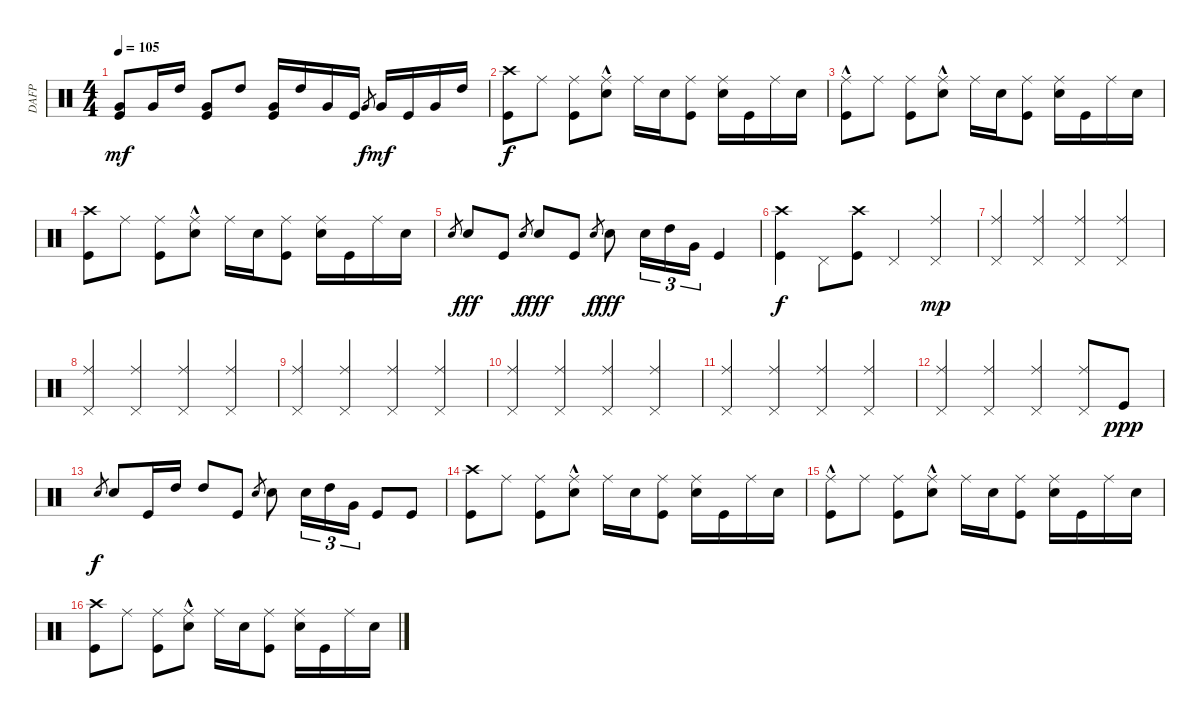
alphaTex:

\track ("DAFP" "DAFP") {instrument percussion}
\staff {score}
\articulation defaults
\ts (4 4)
\tempo 105
\clef neutral
\ks c
("Very Low Tom (hit)" "Kick (hit)").8{dy mf} "Very Low Tom (hit)".16 "High Tom (hit)".16 ("Very Low Tom (hit)" "Kick (hit)").8 "High Tom (hit)".8 ("Very Low Tom (hit)" "Kick (hit)").16 "High Tom (hit)".16 "Very Low Tom (hit)".16 "Kick (hit)".16 "Very Low Tom (hit)".8{gr dy f} "Very Low Tom (hit)".16{dy mf} "Kick (hit)".16 "Very Low Tom (hit)".16 "High Tom (hit)".16 |
("Crash high (hit)" "Kick (hit)").8{dy f} "Ride (middle)".8 ("Kick (hit)" "Ride (middle)").8 ("Snare (hit) 2" "Ride (middle)"{hac}).8 "Ride (middle)".16 "Snare (hit) 2".16 ("Kick (hit)" "Ride (middle)").8 ("Snare (hit) 2" "Ride (middle)").16 "Kick (hit)".16 "Ride (middle)".16 "Snare (hit) 2".16 |
("Ride (middle)"{hac} "Kick (hit)").8 "Ride (middle)".8 ("Kick (hit)" "Ride (middle)").8 ("Snare (hit) 2" "Ride (middle)"{hac}).8 "Ride (middle)".16 "Snare (hit) 2".16 ("Kick (hit)" "Ride (middle)").8 ("Snare (hit) 2" "Ride (middle)").16 "Kick (hit)".16 "Ride (middle)".16 "Snare (hit) 2".16 |
("Crash high (hit)" "Kick (hit)").8 "Ride (middle)".8 ("Kick (hit)" "Ride (middle)").8 ("Snare (hit) 2" "Ride (middle)"{hac}).8 "Ride (middle)".16 "Snare (hit) 2".16 ("Kick (hit)" "Ride (middle)").8 ("Snare (hit) 2" "Ride (middle)").16 "Kick (hit)".16 "Ride (middle)".16 "Snare (hit) 2".16 |
"Snare (hit) 2".8{gr} "Snare (hit) 2".8{dy fff} "Kick (hit)".8 "Snare (hit) 2".8{gr dy f} "Snare (hit) 2".8{dy fff} "Kick (hit)".8 "Snare (hit) 2".8{gr dy f} "Snare (hit) 2".8{dy fff} "Snare (hit) 2".16{tu (3 2)} "High Tom (hit)".16{tu (3 2)} "Very Low Tom (hit)".16{tu (3 2)} "Kick (hit)".4 |
("Crash high (hit)" "Kick (hit)").4{dy f} "Pedal Hi-Hat (hit)".8 ("Kick (hit)" "Crash high (hit)").8 "Pedal Hi-Hat (hit)".4 ("Pedal Hi-Hat (hit)" "Ride (middle)").4{dy mp} |
("Pedal Hi-Hat (hit)" "Ride (middle)").4 ("Pedal Hi-Hat (hit)" "Ride (middle)").4 ("Pedal Hi-Hat (hit)" "Ride (middle)").4 ("Pedal Hi-Hat (hit)" "Ride (middle)").4 |
("Pedal Hi-Hat (hit)" "Ride (middle)").4 ("Pedal Hi-Hat (hit)" "Ride (middle)").4 ("Pedal Hi-Hat (hit)" "Ride (middle)").4 ("Pedal Hi-Hat (hit)" "Ride (middle)").4 |
("Pedal Hi-Hat (hit)" "Ride (middle)").4 ("Pedal Hi-Hat (hit)" "Ride (middle)").4 ("Pedal Hi-Hat (hit)" "Ride (middle)").4 ("Pedal Hi-Hat (hit)" "Ride (middle)").4 |
("Pedal Hi-Hat (hit)" "Ride (middle)").4 ("Pedal Hi-Hat (hit)" "Ride (middle)").4 ("Pedal Hi-Hat (hit)" "Ride (middle)").4 ("Pedal Hi-Hat (hit)" "Ride (middle)").4 |
("Pedal Hi-Hat (hit)" "Ride (middle)").4 ("Pedal Hi-Hat (hit)" "Ride (middle)").4 ("Pedal Hi-Hat (hit)" "Ride (middle)").4 ("Pedal Hi-Hat (hit)" "Ride (middle)").4 |
("Pedal Hi-Hat (hit)" "Ride (middle)").4 ("Pedal Hi-Hat (hit)" "Ride (middle)").4 ("Pedal Hi-Hat (hit)" "Ride (middle)").4 ("Pedal Hi-Hat (hit)" "Ride (middle)").8 "Kick (hit)".8{dy ppp} |
"Snare (hit) 2".8{gr dy f} "Snare (hit) 2".8 "Kick (hit)".16 "High Tom (hit)".16 "High Tom (hit)".8 "Kick (hit)".8 "Snare (hit) 2".8{gr} "Snare (hit) 2".8 "Snare (hit) 2".16{tu (3 2)} "High Tom (hit)".16{tu (3 2)} "Very Low Tom (hit)".16{tu (3 2)} "Kick (hit)".8 "Kick (hit)".8 |
("Crash high (hit)" "Kick (hit)").8 "Ride (middle)".8 ("Kick (hit)" "Ride (middle)").8 ("Snare (hit) 2" "Ride (middle)"{hac}).8 "Ride (middle)".16 "Snare (hit) 2".16 ("Kick (hit)" "Ride (middle)").8 ("Snare (hit) 2" "Ride (middle)").16 "Kick (hit)".16 "Ride (middle)".16 "Snare (hit) 2".16 |
("Ride (middle)"{hac} "Kick (hit)").8 "Ride (middle)".8 ("Kick (hit)" "Ride (middle)").8 ("Snare (hit) 2" "Ride (middle)"{hac}).8 "Ride (middle)".16 "Snare (hit) 2".16 ("Kick (hit)" "Ride (middle)").8 ("Snare (hit) 2" "Ride (middle)").16 "Kick (hit)".16 "Ride (middle)".16 "Snare (hit) 2".16 |
("Crash high (hit)" "Kick (hit)").8 "Ride (middle)".8 ("Kick (hit)" "Ride (middle)").8 ("Snare (hit) 2" "Ride (middle)"{hac}).8 "Ride (middle)".16 "Snare (hit) 2".16 ("Kick (hit)" "Ride (middle)").8 ("Snare (hit) 2" "Ride (middle)").16 "Kick (hit)".16 "Ride (middle)".16 "Snare (hit) 2".16
